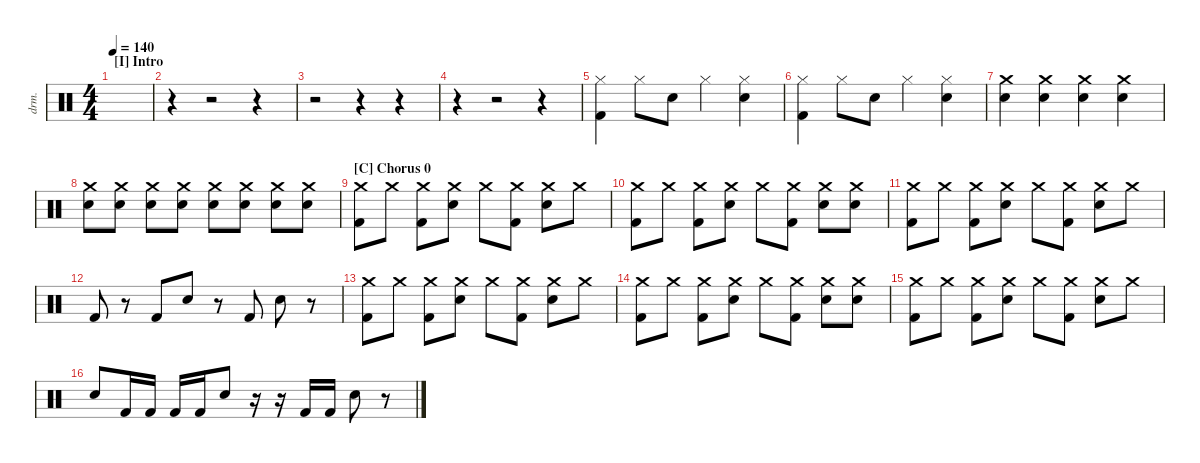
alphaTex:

\defaultSystemsLayout 4
\hideDynamics
\bracketExtendMode nobrackets
\otherSystemsTrackNameOrientation horizontal
\track ("Drumkit" "drm.") {instrument percussion}
\staff {score}
\articulation defaults
\ts (4 4)
\section ("I" "Intro")
\tempo 140
\clef neutral
\ks c
|
r.4{beam Down} r.2{beam Down} r.4{beam Down} |
r.2{beam Down} r.4{beam Down} r.4{beam Down} |
r.4{beam Down} r.2{beam Down} r.4{beam Down} |
("Hi-Hat (closed)" "Kick (hit) 2").4{beam Down} "Hi-Hat (closed)".8{beam Down} "Snare (hit) 2".8{beam Down} "Hi-Hat (closed)".4{beam Down} ("Hi-Hat (closed)" "Snare (hit) 2").4{beam Down} |
("Hi-Hat (closed)" "Kick (hit) 2").4{beam Down} "Hi-Hat (closed)".8{beam Down} "Snare (hit) 2".8{beam Down} "Hi-Hat (closed)".4{beam Down} ("Hi-Hat (closed)" "Snare (hit) 2").4{beam Down} |
("Snare (hit) 2" "Crash medium (hit)").4{beam Down} ("Snare (hit) 2" "Crash medium (hit)").4{beam Down} ("Snare (hit) 2" "Crash medium (hit)").4{beam Down} ("Snare (hit) 2" "Crash medium (hit)").4{beam Down} |
("Snare (hit) 2" "Crash medium (hit)").8{beam Down} ("Snare (hit) 2" "Crash medium (hit)").8{beam Down} ("Snare (hit) 2" "Crash medium (hit)").8{beam Down} ("Snare (hit) 2" "Crash medium (hit)").8{beam Down} ("Snare (hit) 2" "Crash medium (hit)").8{beam Down} ("Snare (hit) 2" "Crash medium (hit)").8{beam Down} ("Snare (hit) 2" "Crash medium (hit)").8{beam Down} ("Snare (hit) 2" "Crash medium (hit)").8{beam Down} |
\section ("C" "Chorus 0")
("Crash medium (hit)" "Kick (hit) 2").8{beam Down} "Crash medium (hit)".8{beam Down} ("Crash medium (hit)" "Kick (hit) 2").8{beam Down} ("Snare (hit) 2" "Crash medium (hit)").8{beam Down} "Crash medium (hit)".8{beam Down} ("Crash medium (hit)" "Kick (hit) 2").8{beam Down} ("Crash medium (hit)" "Snare (hit) 2").8{beam Down} "Crash medium (hit)".8{beam Down} |
("Crash medium (hit)" "Kick (hit) 2").8{beam Down} "Crash medium (hit)".8{beam Down} ("Crash medium (hit)" "Kick (hit) 2").8{beam Down} ("Snare (hit) 2" "Crash medium (hit)").8{beam Down} "Crash medium (hit)".8{beam Down} ("Crash medium (hit)" "Kick (hit) 2").8{beam Down} ("Crash medium (hit)" "Snare (hit) 2").8{beam Down} ("Crash medium (hit)" "Snare (hit) 2").8{beam Down} |
("Crash medium (hit)" "Kick (hit) 2").8{beam Down} "Crash medium (hit)".8{beam Down} ("Crash medium (hit)" "Kick (hit) 2").8{beam Down} ("Snare (hit) 2" "Crash medium (hit)").8{beam Down} "Crash medium (hit)".8{beam Down} ("Crash medium (hit)" "Kick (hit) 2").8{beam Down} ("Crash medium (hit)" "Snare (hit) 2").8{beam Down} "Crash medium (hit)".8{beam Down} |
"Kick (hit) 2".8{beam Up} r.8{beam Up} "Kick (hit) 2".8{beam Up} "Snare (hit) 2".8{beam Up} r.8{beam Up} "Kick (hit) 2".8{beam Up} "Snare (hit) 2".8{beam Down} r.8{beam Down} |
("Crash medium (hit)" "Kick (hit) 2").8{beam Down} "Crash medium (hit)".8{beam Down} ("Crash medium (hit)" "Kick (hit) 2").8{beam Down} ("Snare (hit) 2" "Crash medium (hit)").8{beam Down} "Crash medium (hit)".8{beam Down} ("Crash medium (hit)" "Kick (hit) 2").8{beam Down} ("Crash medium (hit)" "Snare (hit) 2").8{beam Down} "Crash medium (hit)".8{beam Down} |
("Crash medium (hit)" "Kick (hit) 2").8{beam Down} "Crash medium (hit)".8{beam Down} ("Crash medium (hit)" "Kick (hit) 2").8{beam Down} ("Snare (hit) 2" "Crash medium (hit)").8{beam Down} "Crash medium (hit)".8{beam Down} ("Crash medium (hit)" "Kick (hit) 2").8{beam Down} ("Crash medium (hit)" "Snare (hit) 2").8{beam Down} ("Crash medium (hit)" "Snare (hit) 2").8{beam Down} |
("Crash medium (hit)" "Kick (hit) 2").8{beam Down} "Crash medium (hit)".8{beam Down} ("Crash medium (hit)" "Kick (hit) 2").8{beam Down} ("Snare (hit) 2" "Crash medium (hit)").8{beam Down} "Crash medium (hit)".8{beam Down} ("Crash medium (hit)" "Kick (hit) 2").8{beam Down} ("Crash medium (hit)" "Snare (hit) 2").8{beam Down} "Crash medium (hit)".8{beam Down} |
"Snare (hit) 2".8{beam Up} "Kick (hit) 2".16{beam Up} "Kick (hit) 2".16{beam Up} "Kick (hit) 2".16{beam Up} "Kick (hit) 2".16{beam Up} "Snare (hit) 2".8{beam Up} r.16{beam Up} r.16{beam Up} "Kick (hit) 2".16{dy f beam Up} "Kick (hit) 2".16{beam Up} "Snare (hit) 2".8{dy mf beam Down} r.8{beam Down}
